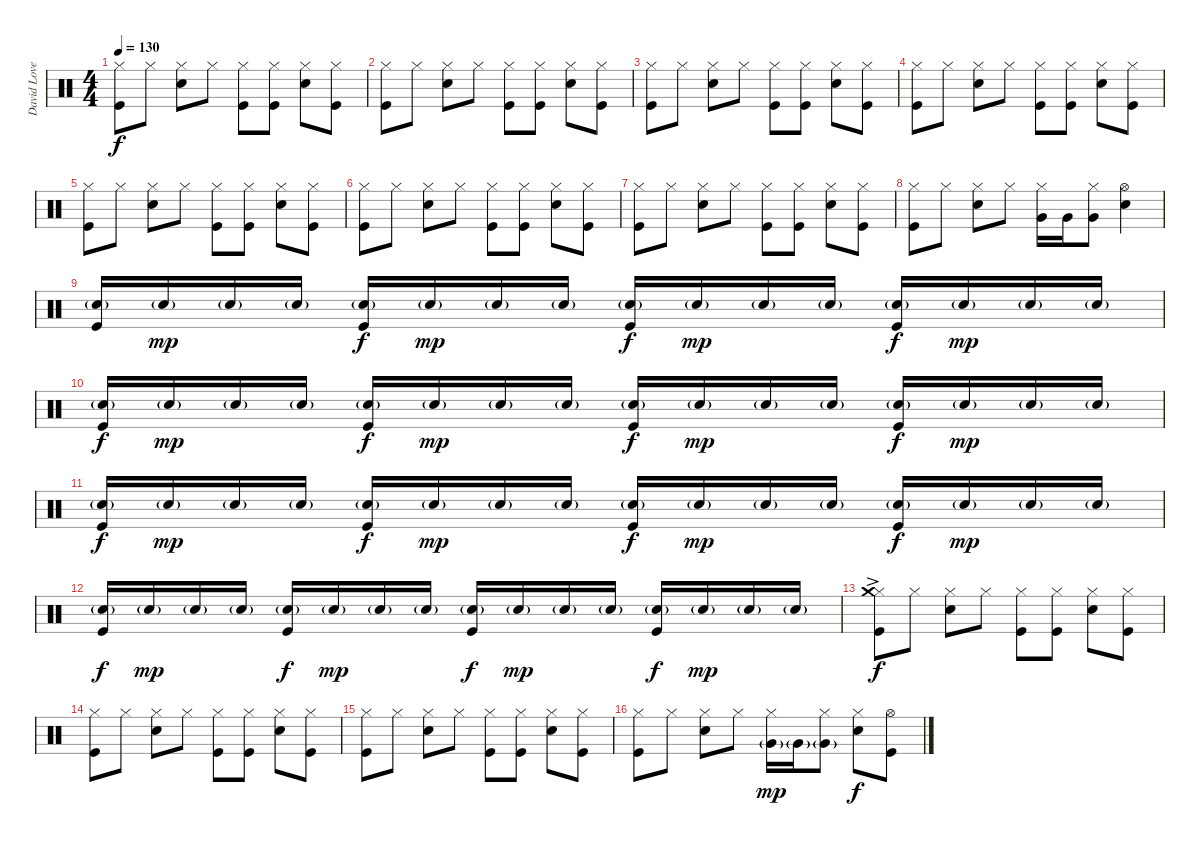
\track ("David Lovering" "David Love") {instrument percussion}
\staff {score}
\articulation defaults
\ts (4 4)
\tempo 130
\clef neutral
\ks c
("Hi-Hat (closed)" "Kick (hit)").8{dy f} "Hi-Hat (closed)".8 ("Hi-Hat (closed)" "Snare (hit) 2").8 "Hi-Hat (closed)".8 ("Hi-Hat (closed)" "Kick (hit)").8 ("Hi-Hat (closed)" "Kick (hit)").8 ("Hi-Hat (closed)" "Snare (hit) 2").8 ("Hi-Hat (closed)" "Kick (hit)").8 |
("Hi-Hat (closed)" "Kick (hit)").8 "Hi-Hat (closed)".8 ("Hi-Hat (closed)" "Snare (hit) 2").8 "Hi-Hat (closed)".8 ("Hi-Hat (closed)" "Kick (hit)").8 ("Hi-Hat (closed)" "Kick (hit)").8 ("Hi-Hat (closed)" "Snare (hit) 2").8 ("Hi-Hat (closed)" "Kick (hit)").8 |
("Hi-Hat (closed)" "Kick (hit)").8 "Hi-Hat (closed)".8 ("Hi-Hat (closed)" "Snare (hit) 2").8 "Hi-Hat (closed)".8 ("Hi-Hat (closed)" "Kick (hit)").8 ("Hi-Hat (closed)" "Kick (hit)").8 ("Hi-Hat (closed)" "Snare (hit) 2").8 ("Hi-Hat (closed)" "Kick (hit)").8 |
("Hi-Hat (closed)" "Kick (hit)").8 "Hi-Hat (closed)".8 ("Hi-Hat (closed)" "Snare (hit) 2").8 "Hi-Hat (closed)".8 ("Hi-Hat (closed)" "Kick (hit)").8 ("Hi-Hat (closed)" "Kick (hit)").8 ("Hi-Hat (closed)" "Snare (hit) 2").8 ("Hi-Hat (closed)" "Kick (hit)").8 |
("Hi-Hat (closed)" "Kick (hit)").8 "Hi-Hat (closed)".8 ("Hi-Hat (closed)" "Snare (hit) 2").8 "Hi-Hat (closed)".8 ("Hi-Hat (closed)" "Kick (hit)").8 ("Hi-Hat (closed)" "Kick (hit)").8 ("Hi-Hat (closed)" "Snare (hit) 2").8 ("Hi-Hat (closed)" "Kick (hit)").8 |
("Hi-Hat (closed)" "Kick (hit)").8 "Hi-Hat (closed)".8 ("Hi-Hat (closed)" "Snare (hit) 2").8 "Hi-Hat (closed)".8 ("Hi-Hat (closed)" "Kick (hit)").8 ("Hi-Hat (closed)" "Kick (hit)").8 ("Hi-Hat (closed)" "Snare (hit) 2").8 ("Hi-Hat (closed)" "Kick (hit)").8 |
("Hi-Hat (closed)" "Kick (hit)").8 "Hi-Hat (closed)".8 ("Hi-Hat (closed)" "Snare (hit) 2").8 "Hi-Hat (closed)".8 ("Hi-Hat (closed)" "Kick (hit)").8 ("Hi-Hat (closed)" "Kick (hit)").8 ("Hi-Hat (closed)" "Snare (hit) 2").8 ("Hi-Hat (closed)" "Kick (hit)").8 |
("Hi-Hat (closed)" "Kick (hit)").8 "Hi-Hat (closed)".8 ("Hi-Hat (closed)" "Snare (hit) 2").8 "Hi-Hat (closed)".8 ("Hi-Hat (closed)" "Very Low Tom (hit)").16 "Very Low Tom (hit)".16 ("Hi-Hat (closed)" "Very Low Tom (hit)").8 ("Hi-Hat (open)" "Snare (hit) 2").4 |
("Snare (hit) 2"{g} "Kick (hit)").16 "Snare (hit) 2"{g}.16{dy mp} "Snare (hit) 2"{g}.16 "Snare (hit) 2"{g}.16 ("Snare (hit) 2"{g} "Kick (hit)").16{dy f} "Snare (hit) 2"{g}.16{dy mp} "Snare (hit) 2"{g}.16 "Snare (hit) 2"{g}.16 ("Snare (hit) 2"{g} "Kick (hit)").16{dy f} "Snare (hit) 2"{g}.16{dy mp} "Snare (hit) 2"{g}.16 "Snare (hit) 2"{g}.16 ("Snare (hit) 2"{g} "Kick (hit)").16{dy f} "Snare (hit) 2"{g}.16{dy mp} "Snare (hit) 2"{g}.16 "Snare (hit) 2"{g}.16 |
("Snare (hit) 2"{g} "Kick (hit)").16{dy f} "Snare (hit) 2"{g}.16{dy mp} "Snare (hit) 2"{g}.16 "Snare (hit) 2"{g}.16 ("Snare (hit) 2"{g} "Kick (hit)").16{dy f} "Snare (hit) 2"{g}.16{dy mp} "Snare (hit) 2"{g}.16 "Snare (hit) 2"{g}.16 ("Snare (hit) 2"{g} "Kick (hit)").16{dy f} "Snare (hit) 2"{g}.16{dy mp} "Snare (hit) 2"{g}.16 "Snare (hit) 2"{g}.16 ("Snare (hit) 2"{g} "Kick (hit)").16{dy f} "Snare (hit) 2"{g}.16{dy mp} "Snare (hit) 2"{g}.16 "Snare (hit) 2"{g}.16 |
("Snare (hit) 2"{g} "Kick (hit)").16{dy f} "Snare (hit) 2"{g}.16{dy mp} "Snare (hit) 2"{g}.16 "Snare (hit) 2"{g}.16 ("Snare (hit) 2"{g} "Kick (hit)").16{dy f} "Snare (hit) 2"{g}.16{dy mp} "Snare (hit) 2"{g}.16 "Snare (hit) 2"{g}.16 ("Snare (hit) 2"{g} "Kick (hit)").16{dy f} "Snare (hit) 2"{g}.16{dy mp} "Snare (hit) 2"{g}.16 "Snare (hit) 2"{g}.16 ("Snare (hit) 2"{g} "Kick (hit)").16{dy f} "Snare (hit) 2"{g}.16{dy mp} "Snare (hit) 2"{g}.16 "Snare (hit) 2"{g}.16 |
("Snare (hit) 2"{g} "Kick (hit)").16{dy f} "Snare (hit) 2"{g}.16{dy mp} "Snare (hit) 2"{g}.16 "Snare (hit) 2"{g}.16 ("Snare (hit) 2"{g} "Kick (hit)").16{dy f} "Snare (hit) 2"{g}.16{dy mp} "Snare (hit) 2"{g}.16 "Snare (hit) 2"{g}.16 ("Snare (hit) 2"{g} "Kick (hit)").16{dy f} "Snare (hit) 2"{g}.16{dy mp} "Snare (hit) 2"{g}.16 "Snare (hit) 2"{g}.16 ("Snare (hit) 2"{g} "Kick (hit)").16{dy f} "Snare (hit) 2"{g}.16{dy mp} "Snare (hit) 2"{g}.16 "Snare (hit) 2"{g}.16 |
("Hi-Hat (closed)" "Crash medium (hit)"{ac} "Kick (hit)").8{dy f} "Hi-Hat (closed)".8 ("Hi-Hat (closed)" "Snare (hit) 2").8 "Hi-Hat (closed)".8 ("Hi-Hat (closed)" "Kick (hit)").8 ("Hi-Hat (closed)" "Kick (hit)").8 ("Hi-Hat (closed)" "Snare (hit) 2").8 ("Hi-Hat (closed)" "Kick (hit)").8 |
("Hi-Hat (closed)" "Kick (hit)").8 "Hi-Hat (closed)".8 ("Hi-Hat (closed)" "Snare (hit) 2").8 "Hi-Hat (closed)".8 ("Hi-Hat (closed)" "Kick (hit)").8 ("Hi-Hat (closed)" "Kick (hit)").8 ("Hi-Hat (closed)" "Snare (hit) 2").8 ("Hi-Hat (closed)" "Kick (hit)").8 |
("Hi-Hat (closed)" "Kick (hit)").8 "Hi-Hat (closed)".8 ("Hi-Hat (closed)" "Snare (hit) 2").8 "Hi-Hat (closed)".8 ("Hi-Hat (closed)" "Kick (hit)").8 ("Hi-Hat (closed)" "Kick (hit)").8 ("Hi-Hat (closed)" "Snare (hit) 2").8 ("Hi-Hat (closed)" "Kick (hit)").8 |
("Hi-Hat (closed)" "Kick (hit)").8 "Hi-Hat (closed)".8 ("Hi-Hat (closed)" "Snare (hit) 2").8 "Hi-Hat (closed)".8 ("Hi-Hat (closed)" "Very Low Tom (hit)"{g}).16{dy mp} "Very Low Tom (hit)"{g}.16 ("Hi-Hat (closed)" "Very Low Tom (hit)"{g}).8 ("Hi-Hat (closed)" "Snare (hit) 2").8{dy f} ("Hi-Hat (open)" "Kick (hit)").8
